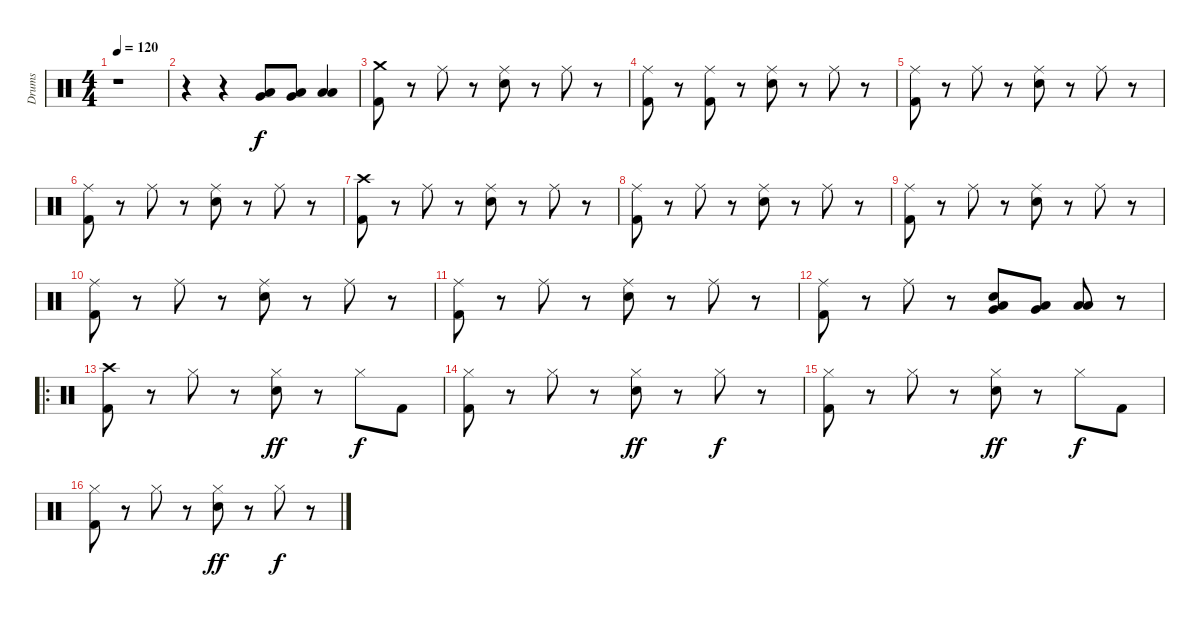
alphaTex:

\track ("Drums" "Drums") {instrument percussion}
\staff {score}
\articulation defaults
\ts (4 4)
\tempo 120
\clef neutral
\ks c
r.1{dy f} |
r.4 r.4 ("Low Tom (hit)" "Very Low Tom (hit)").8 ("Very Low Tom (hit)" "Low Floor Tom (hit)").8 ("Low Floor Tom (hit)" "Low Floor Tom (hit)").4 |
("Crash medium (hit)" "Kick (hit) 2").8 r.8 "Ride (middle)".8 r.8 ("Ride (middle)" "Electric Snare (hit)").8 r.8 "Ride (middle)".8 r.8 |
("Ride (middle)" "Kick (hit) 2").8 r.8 ("Ride (middle)" "Kick (hit) 2").8 r.8 ("Ride (middle)" "Electric Snare (hit)").8 r.8 "Ride (middle)".8 r.8 |
("Ride (middle)" "Kick (hit) 2").8 r.8 "Ride (middle)".8 r.8 ("Ride (middle)" "Electric Snare (hit)").8 r.8 "Ride (middle)".8 r.8 |
("Ride (middle)" "Kick (hit) 2").8 r.8 "Ride (middle)".8 r.8 ("Ride (middle)" "Electric Snare (hit)").8 r.8 "Ride (middle)".8 r.8 |
("Crash high (hit)" "Kick (hit) 2").8 r.8 "Ride (middle)".8 r.8 ("Ride (middle)" "Electric Snare (hit)").8 r.8 "Ride (middle)".8 r.8 |
("Ride (middle)" "Kick (hit) 2").8 r.8 "Ride (middle)".8 r.8 ("Ride (middle)" "Electric Snare (hit)").8 r.8 "Ride (middle)".8 r.8 |
("Ride (middle)" "Kick (hit) 2").8 r.8 "Ride (middle)".8 r.8 ("Ride (middle)" "Electric Snare (hit)").8 r.8 "Ride (middle)".8 r.8 |
("Ride (middle)" "Kick (hit) 2").8 r.8 "Ride (middle)".8 r.8 ("Ride (middle)" "Electric Snare (hit)").8 r.8 "Ride (middle)".8 r.8 |
("Ride (middle)" "Kick (hit) 2").8 r.8 "Ride (middle)".8 r.8 ("Ride (middle)" "Electric Snare (hit)").8 r.8 "Ride (middle)".8 r.8 |
("Ride (middle)" "Kick (hit) 2").8 r.8 "Ride (middle)".8 r.8 ("Low Tom (hit)" "Very Low Tom (hit)" "Electric Snare (hit)").8 ("Very Low Tom (hit)" "Low Floor Tom (hit)").8 ("Low Floor Tom (hit)" "Low Floor Tom (hit)").8 r.8 |
\ro
("Crash high (hit)" "Kick (hit) 2").8 r.8 "Hi-Hat (closed)".8 r.8 ("Hi-Hat (closed)" "Electric Snare (hit)").8{dy ff} r.8 "Hi-Hat (closed)".8{dy f} "Kick (hit) 2".8 |
("Hi-Hat (closed)" "Kick (hit) 2").8 r.8 "Hi-Hat (closed)".8 r.8 ("Hi-Hat (closed)" "Electric Snare (hit)").8{dy ff} r.8 "Hi-Hat (closed)".8{dy f} r.8 |
("Hi-Hat (closed)" "Kick (hit) 2").8 r.8 "Hi-Hat (closed)".8 r.8 ("Hi-Hat (closed)" "Electric Snare (hit)").8{dy ff} r.8 "Hi-Hat (closed)".8{dy f} "Kick (hit) 2".8 |
("Hi-Hat (closed)" "Kick (hit) 2").8 r.8 "Hi-Hat (closed)".8 r.8 ("Hi-Hat (closed)" "Electric Snare (hit)").8{dy ff} r.8 "Hi-Hat (closed)".8{dy f} r.8
